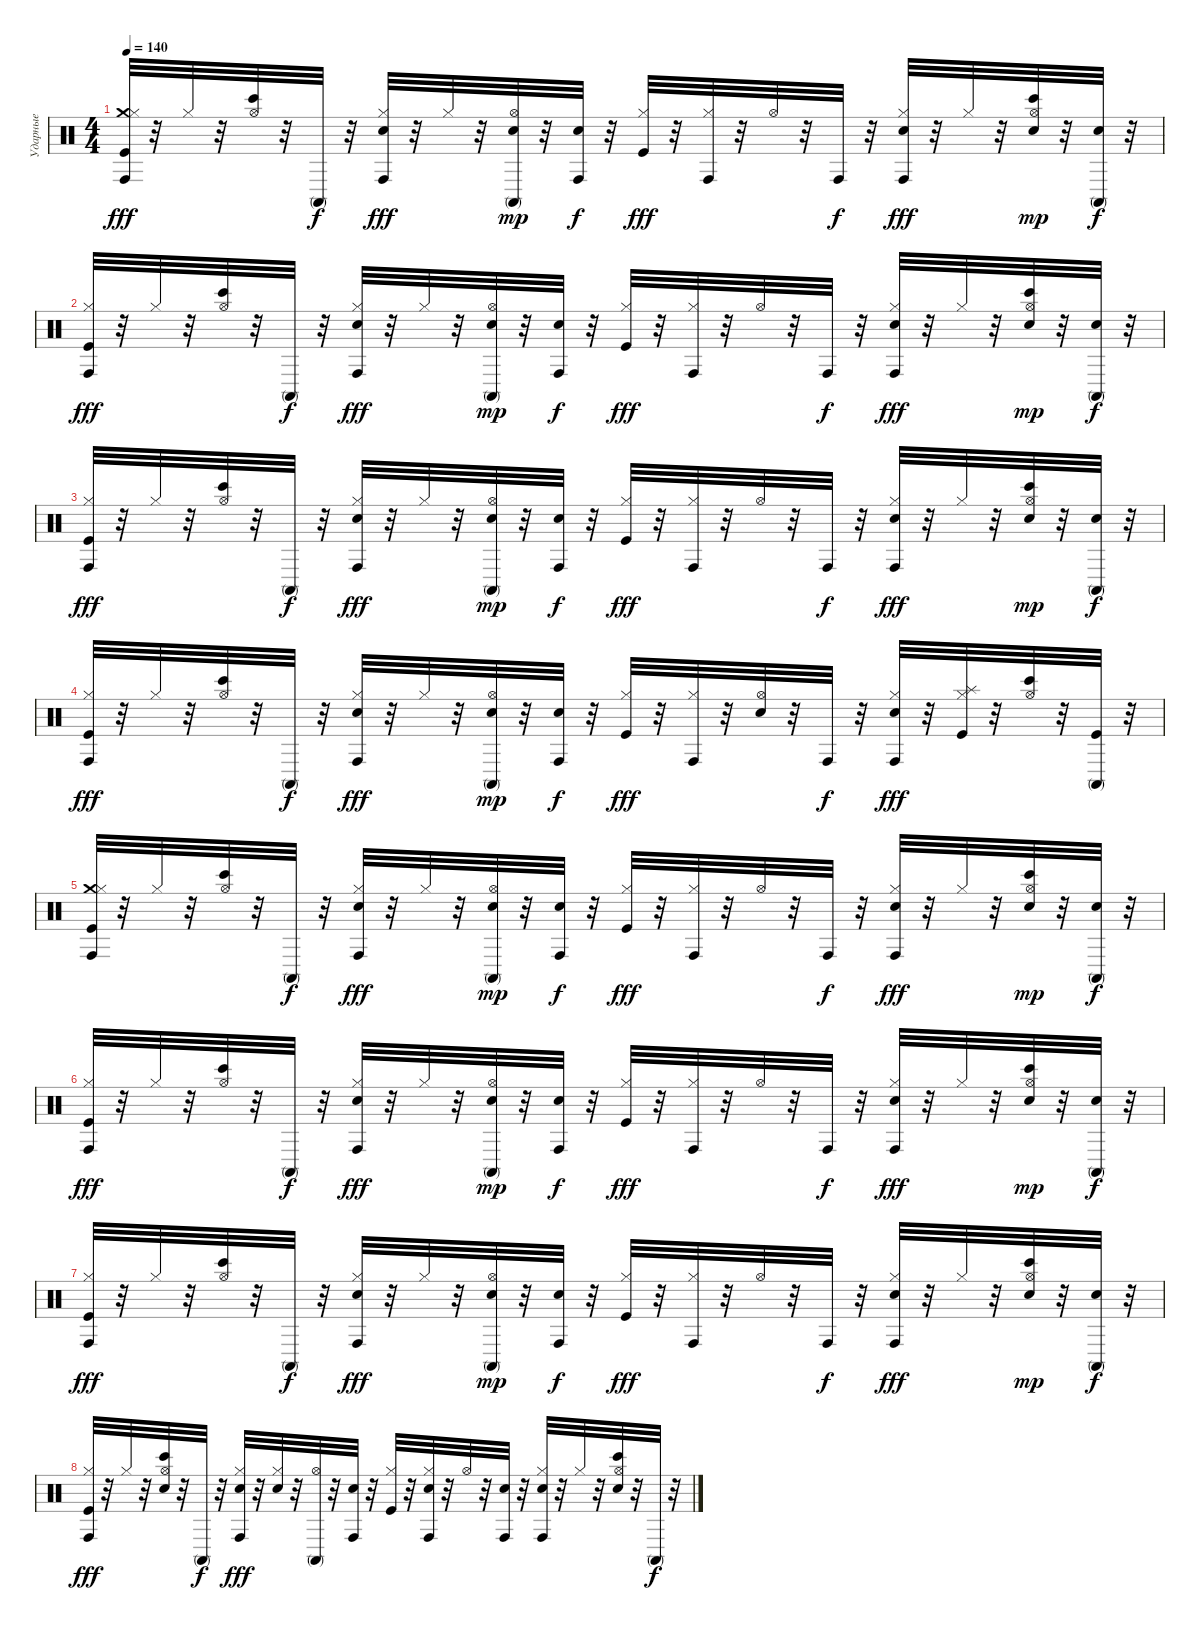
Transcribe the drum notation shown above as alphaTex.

\track ("Ударные" "Ударные") {instrument percussion}
\staff {score}
\articulation defaults
\ts (4 4)
\tempo 140
\clef neutral
\ks c
("Conga high (hit)" "Crash medium (hit)" "Hi-Hat (closed)" "Kick (hit)").32{dy fff} r.32 "Hi-Hat (closed)".32 r.32 ("Bongo High (hit)" "Hi-Hat (open)").32 r.32 "Conga high (mute)".32{dy f} r.32 ("Conga high (hit)" "Hi-Hat (closed)" "Electric Snare (hit)").32{dy fff} r.32 "Hi-Hat (closed)".32 r.32 ("Conga high (mute)" "Hi-Hat (open)" "Electric Snare (hit)").32{dy mp} r.32 ("Conga high (hit)" "Electric Snare (hit)").32{dy f} r.32 ("Hi-Hat (closed)" "Kick (hit)").32{dy fff} r.32 ("Conga high (hit)" "Hi-Hat (closed)").32 r.32 "Hi-Hat (open)".32 r.32 "Conga high (hit)".32{dy f} r.32 ("Conga high (hit)" "Hi-Hat (closed)" "Electric Snare (hit)").32{dy fff} r.32 "Hi-Hat (closed)".32 r.32 ("Bongo High (hit)" "Hi-Hat (open)" "Electric Snare (hit)").32{dy mp} r.32 ("Conga high (mute)" "Electric Snare (hit)").32{dy f} r.32 |
("Hi-Hat (closed)" "Kick (hit)" "Conga high (hit)").32{dy fff} r.32 "Hi-Hat (closed)".32 r.32 ("Hi-Hat (open)" "Bongo High (hit)").32 r.32 "Conga high (mute)".32{dy f} r.32 ("Hi-Hat (closed)" "Electric Snare (hit)" "Conga high (hit)").32{dy fff} r.32 "Hi-Hat (closed)".32 r.32 ("Hi-Hat (open)" "Electric Snare (hit)" "Conga high (mute)").32{dy mp} r.32 ("Electric Snare (hit)" "Conga high (hit)").32{dy f} r.32 ("Hi-Hat (closed)" "Kick (hit)").32{dy fff} r.32 ("Hi-Hat (closed)" "Conga high (hit)").32 r.32 "Hi-Hat (open)".32 r.32 "Conga high (hit)".32{dy f} r.32 ("Hi-Hat (closed)" "Electric Snare (hit)" "Conga high (hit)").32{dy fff} r.32 "Hi-Hat (closed)".32 r.32 ("Hi-Hat (open)" "Electric Snare (hit)" "Bongo High (hit)").32{dy mp} r.32 ("Electric Snare (hit)" "Conga high (mute)").32{dy f} r.32 |
("Kick (hit)" "Hi-Hat (closed)" "Conga high (hit)").32{dy fff} r.32 "Hi-Hat (closed)".32 r.32 ("Bongo High (hit)" "Hi-Hat (open)").32 r.32 "Conga high (mute)".32{dy f} r.32 ("Conga high (hit)" "Hi-Hat (closed)" "Electric Snare (hit)").32{dy fff} r.32 "Hi-Hat (closed)".32 r.32 ("Conga high (mute)" "Hi-Hat (open)" "Electric Snare (hit)").32{dy mp} r.32 ("Conga high (hit)" "Electric Snare (hit)").32{dy f} r.32 ("Hi-Hat (closed)" "Kick (hit)").32{dy fff} r.32 ("Conga high (hit)" "Hi-Hat (closed)").32 r.32 "Hi-Hat (open)".32 r.32 "Conga high (hit)".32{dy f} r.32 ("Conga high (hit)" "Hi-Hat (closed)" "Electric Snare (hit)").32{dy fff} r.32 "Hi-Hat (closed)".32 r.32 ("Bongo High (hit)" "Hi-Hat (open)" "Electric Snare (hit)").32{dy mp} r.32 ("Conga high (mute)" "Electric Snare (hit)").32{dy f} r.32 |
("Hi-Hat (closed)" "Kick (hit)" "Conga high (hit)").32{dy fff} r.32 "Hi-Hat (closed)".32 r.32 ("Hi-Hat (open)" "Bongo High (hit)").32 r.32 "Conga high (mute)".32{dy f} r.32 ("Hi-Hat (closed)" "Electric Snare (hit)" "Conga high (hit)").32{dy fff} r.32 "Hi-Hat (closed)".32 r.32 ("Hi-Hat (open)" "Electric Snare (hit)" "Conga high (mute)").32{dy mp} r.32 ("Electric Snare (hit)" "Conga high (hit)").32{dy f} r.32 ("Hi-Hat (closed)" "Kick (hit)").32{dy fff} r.32 ("Hi-Hat (closed)" "Conga high (hit)").32 r.32 ("Hi-Hat (open)" "Electric Snare (hit)").32 r.32 "Conga high (hit)".32{dy f} r.32 ("Hi-Hat (closed)" "Conga high (hit)" "Electric Snare (hit)").32{dy fff} r.32 ("Hi-Hat (closed)" "Kick (hit)" "Splash (hit)").32 r.32 ("Hi-Hat (open)" "Bongo High (hit)").32 r.32 ("Conga high (mute)" "Kick (hit)").32 r.32 |
("Conga high (hit)" "Crash medium (hit)" "Hi-Hat (closed)" "Kick (hit)").32 r.32 "Hi-Hat (closed)".32 r.32 ("Bongo High (hit)" "Hi-Hat (open)").32 r.32 "Conga high (mute)".32{dy f} r.32 ("Conga high (hit)" "Hi-Hat (closed)" "Electric Snare (hit)").32{dy fff} r.32 "Hi-Hat (closed)".32 r.32 ("Conga high (mute)" "Hi-Hat (open)" "Electric Snare (hit)").32{dy mp} r.32 ("Conga high (hit)" "Electric Snare (hit)").32{dy f} r.32 ("Hi-Hat (closed)" "Kick (hit)").32{dy fff} r.32 ("Conga high (hit)" "Hi-Hat (closed)").32 r.32 "Hi-Hat (open)".32 r.32 "Conga high (hit)".32{dy f} r.32 ("Conga high (hit)" "Hi-Hat (closed)" "Electric Snare (hit)").32{dy fff} r.32 "Hi-Hat (closed)".32 r.32 ("Bongo High (hit)" "Hi-Hat (open)" "Electric Snare (hit)").32{dy mp} r.32 ("Conga high (mute)" "Electric Snare (hit)").32{dy f} r.32 |
("Hi-Hat (closed)" "Kick (hit)" "Conga high (hit)").32{dy fff} r.32 "Hi-Hat (closed)".32 r.32 ("Hi-Hat (open)" "Bongo High (hit)").32 r.32 "Conga high (mute)".32{dy f} r.32 ("Hi-Hat (closed)" "Electric Snare (hit)" "Conga high (hit)").32{dy fff} r.32 "Hi-Hat (closed)".32 r.32 ("Hi-Hat (open)" "Electric Snare (hit)" "Conga high (mute)").32{dy mp} r.32 ("Electric Snare (hit)" "Conga high (hit)").32{dy f} r.32 ("Hi-Hat (closed)" "Kick (hit)").32{dy fff} r.32 ("Hi-Hat (closed)" "Conga high (hit)").32 r.32 "Hi-Hat (open)".32 r.32 "Conga high (hit)".32{dy f} r.32 ("Hi-Hat (closed)" "Electric Snare (hit)" "Conga high (hit)").32{dy fff} r.32 "Hi-Hat (closed)".32 r.32 ("Hi-Hat (open)" "Electric Snare (hit)" "Bongo High (hit)").32{dy mp} r.32 ("Electric Snare (hit)" "Conga high (mute)").32{dy f} r.32 |
("Kick (hit)" "Hi-Hat (closed)" "Conga high (hit)").32{dy fff} r.32 "Hi-Hat (closed)".32 r.32 ("Bongo High (hit)" "Hi-Hat (open)").32 r.32 "Conga high (mute)".32{dy f} r.32 ("Conga high (hit)" "Hi-Hat (closed)" "Electric Snare (hit)").32{dy fff} r.32 "Hi-Hat (closed)".32 r.32 ("Conga high (mute)" "Hi-Hat (open)" "Electric Snare (hit)").32{dy mp} r.32 ("Conga high (hit)" "Electric Snare (hit)").32{dy f} r.32 ("Hi-Hat (closed)" "Kick (hit)").32{dy fff} r.32 ("Conga high (hit)" "Hi-Hat (closed)").32 r.32 "Hi-Hat (open)".32 r.32 "Conga high (hit)".32{dy f} r.32 ("Conga high (hit)" "Hi-Hat (closed)" "Electric Snare (hit)").32{dy fff} r.32 "Hi-Hat (closed)".32 r.32 ("Bongo High (hit)" "Hi-Hat (open)" "Electric Snare (hit)").32{dy mp} r.32 ("Conga high (mute)" "Electric Snare (hit)").32{dy f} r.32 |
("Hi-Hat (closed)" "Kick (hit)" "Conga high (hit)").32{dy fff} r.32 "Hi-Hat (closed)".32 r.32 ("Hi-Hat (open)" "Bongo High (hit)" "Electric Snare (hit)").32 r.32 "Conga high (mute)".32{dy f} r.32 ("Hi-Hat (closed)" "Conga high (hit)" "Electric Snare (hit)").32{dy fff} r.32 ("Hi-Hat (closed)" "Electric Snare (hit)").32 r.32 ("Hi-Hat (open)" "Conga high (mute)").32 r.32 ("Conga high (hit)" "Electric Snare (hit)").32 r.32 ("Hi-Hat (closed)" "Kick (hit)").32 r.32 ("Hi-Hat (closed)" "Conga high (hit)" "Electric Snare (hit)").32 r.32 "Hi-Hat (open)".32 r.32 ("Conga high (hit)" "Electric Snare (hit)").32 r.32 ("Hi-Hat (closed)" "Conga high (hit)" "Electric Snare (hit)").32 r.32 "Hi-Hat (closed)".32 r.32 ("Hi-Hat (open)" "Bongo High (hit)" "Electric Snare (hit)").32 r.32 "Conga high (mute)".32{dy f} r.32
